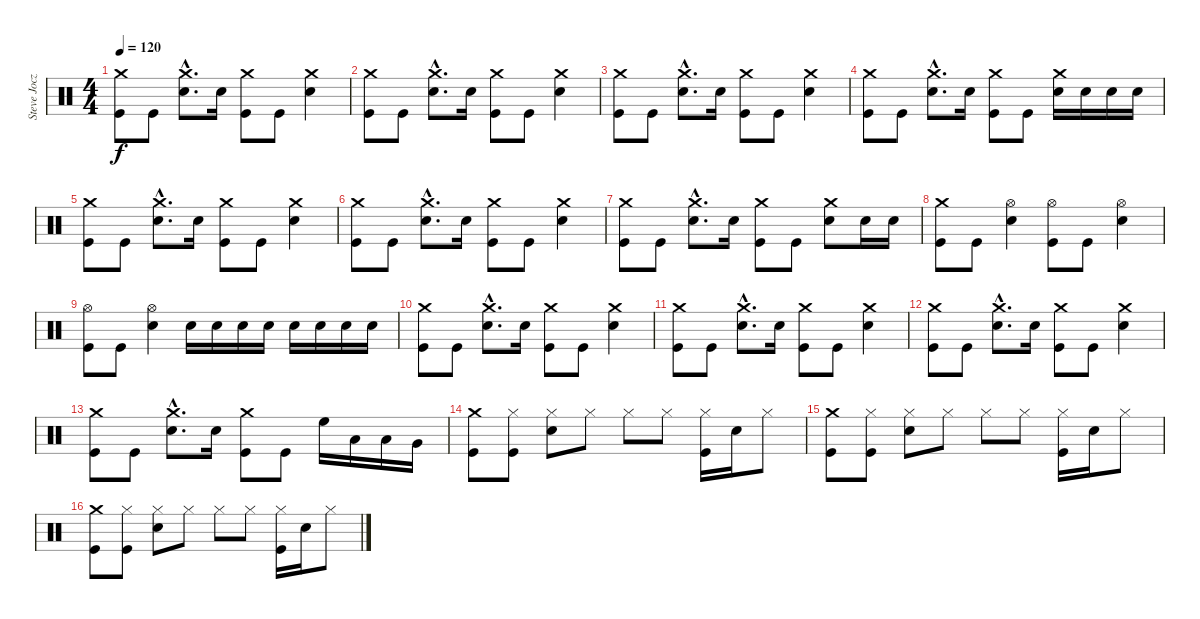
\track ("Steve Jocz (STEVO)" "Steve Jocz") {instrument percussion}
\staff {score}
\articulation defaults
\ts (4 4)
\tempo 120
\clef neutral
\ks c
("Crash medium (hit)" "Kick (hit)").8{dy f} "Kick (hit)".8 ("Crash medium (hit)"{hac} "Snare (hit) 2"{hac}).8{d} "Snare (hit) 2".16 ("Crash medium (hit)" "Kick (hit)").8 "Kick (hit)".8 ("Crash medium (hit)" "Snare (hit) 2").4 |
("Crash medium (hit)" "Kick (hit)").8 "Kick (hit)".8 ("Crash medium (hit)"{hac} "Snare (hit) 2"{hac}).8{d} "Snare (hit) 2".16 ("Crash medium (hit)" "Kick (hit)").8 "Kick (hit)".8 ("Crash medium (hit)" "Snare (hit) 2").4 |
("Crash medium (hit)" "Kick (hit)").8 "Kick (hit)".8 ("Crash medium (hit)"{hac} "Snare (hit) 2"{hac}).8{d} "Snare (hit) 2".16 ("Crash medium (hit)" "Kick (hit)").8 "Kick (hit)".8 ("Crash medium (hit)" "Snare (hit) 2").4 |
("Crash medium (hit)" "Kick (hit)").8 "Kick (hit)".8 ("Crash medium (hit)"{hac} "Snare (hit) 2"{hac}).8{d} "Snare (hit) 2".16 ("Crash medium (hit)" "Kick (hit)").8 "Kick (hit)".8 ("Crash medium (hit)" "Snare (hit) 2").16 "Snare (hit) 2".16 "Snare (hit) 2".16 "Snare (hit) 2".16 |
("Crash medium (hit)" "Kick (hit)").8 "Kick (hit)".8 ("Crash medium (hit)"{hac} "Snare (hit) 2"{hac}).8{d} "Snare (hit) 2".16 ("Crash medium (hit)" "Kick (hit)").8 "Kick (hit)".8 ("Crash medium (hit)" "Snare (hit) 2").4 |
("Crash medium (hit)" "Kick (hit)").8 "Kick (hit)".8 ("Crash medium (hit)"{hac} "Snare (hit) 2"{hac}).8{d} "Snare (hit) 2".16 ("Crash medium (hit)" "Kick (hit)").8 "Kick (hit)".8 ("Crash medium (hit)" "Snare (hit) 2").4 |
("Crash medium (hit)" "Kick (hit)").8 "Kick (hit)".8 ("Crash medium (hit)"{hac} "Snare (hit) 2"{hac}).8{d} "Snare (hit) 2".16 ("Crash medium (hit)" "Kick (hit)").8 "Kick (hit)".8 ("Crash medium (hit)" "Snare (hit) 2").8 "Snare (hit) 2".16 "Snare (hit) 2".16 |
("Crash medium (hit)" "Kick (hit)").8 "Kick (hit)".8 ("Hi-Hat (open)" "Snare (hit) 2").4 ("Hi-Hat (open)" "Kick (hit)").8 "Kick (hit)".8 ("Hi-Hat (open)" "Snare (hit) 2").4 |
("Hi-Hat (open)" "Kick (hit)").8 "Kick (hit)".8 ("Hi-Hat (open)" "Snare (hit) 2").4 "Snare (hit) 2".16 "Snare (hit) 2".16 "Snare (hit) 2".16 "Snare (hit) 2".16 "Snare (hit) 2".16 "Snare (hit) 2".16 "Snare (hit) 2".16 "Snare (hit) 2".16 |
("Crash medium (hit)" "Kick (hit)").8 "Kick (hit)".8 ("Crash medium (hit)"{hac} "Snare (hit) 2"{hac}).8{d} "Snare (hit) 2".16 ("Crash medium (hit)" "Kick (hit)").8 "Kick (hit)".8 ("Crash medium (hit)" "Snare (hit) 2").4 |
("Crash medium (hit)" "Kick (hit)").8 "Kick (hit)".8 ("Crash medium (hit)"{hac} "Snare (hit) 2"{hac}).8{d} "Snare (hit) 2".16 ("Crash medium (hit)" "Kick (hit)").8 "Kick (hit)".8 ("Crash medium (hit)" "Snare (hit) 2").4 |
("Crash medium (hit)" "Kick (hit)").8 "Kick (hit)".8 ("Crash medium (hit)"{hac} "Snare (hit) 2"{hac}).8{d} "Snare (hit) 2".16 ("Crash medium (hit)" "Kick (hit)").8 "Kick (hit)".8 ("Crash medium (hit)" "Snare (hit) 2").4 |
("Crash medium (hit)" "Kick (hit)").8 "Kick (hit)".8 ("Crash medium (hit)"{hac} "Snare (hit) 2"{hac}).8{d} "Snare (hit) 2".16 ("Crash medium (hit)" "Kick (hit)").8 "Kick (hit)".8 "High Floor Tom (hit)".16 "Low Tom (hit)".16 "Low Tom (hit)".16 "Very Low Tom (hit)".16 |
("Crash medium (hit)" "Kick (hit)").8 ("Hi-Hat (closed)" "Kick (hit)").8 ("Hi-Hat (closed)" "Snare (hit) 2").8 "Hi-Hat (closed)".8 "Hi-Hat (closed)".8 "Hi-Hat (closed)".8 ("Hi-Hat (closed)" "Kick (hit)").16 "Snare (hit) 2".16 "Hi-Hat (closed)".8 |
("Crash medium (hit)" "Kick (hit)").8 ("Hi-Hat (closed)" "Kick (hit)").8 ("Hi-Hat (closed)" "Snare (hit) 2").8 "Hi-Hat (closed)".8 "Hi-Hat (closed)".8 "Hi-Hat (closed)".8 ("Hi-Hat (closed)" "Kick (hit)").16 "Snare (hit) 2".16 "Hi-Hat (closed)".8 |
("Crash medium (hit)" "Kick (hit)").8 ("Hi-Hat (closed)" "Kick (hit)").8 ("Hi-Hat (closed)" "Snare (hit) 2").8 "Hi-Hat (closed)".8 "Hi-Hat (closed)".8 "Hi-Hat (closed)".8 ("Hi-Hat (closed)" "Kick (hit)").16 "Snare (hit) 2".16 "Hi-Hat (closed)".8
